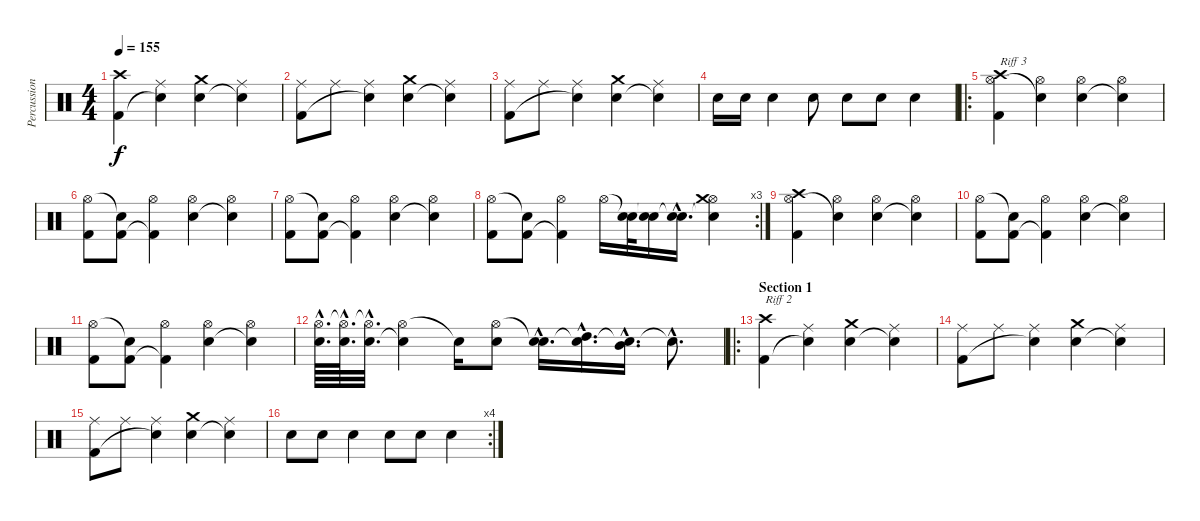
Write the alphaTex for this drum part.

\track ("Percussion" "Percussion") {instrument percussion}
\staff {score}
\articulation defaults
\ts (4 4)
\tempo 155
\clef neutral
\ks c
("Crash high (hit)" "Kick (hit) 2").4{dy f} ("Ride (middle)" "Snare (hit)"{t}).4 ("Crash medium (hit)" "Electric Snare (hit)").4 ("Ride (middle)" "Snare (hit)"{t}).4 |
("Ride (middle)" "Kick (hit) 2").8 "Ride (middle)".8 ("Ride (middle)" "Snare (hit)"{t}).4 ("Crash medium (hit)" "Electric Snare (hit)").4 ("Ride (middle)" "Snare (hit)"{t}).4 |
("Ride (middle)" "Kick (hit) 2").8 "Ride (middle)".8 ("Ride (middle)" "Snare (hit)"{t}).4 ("Crash medium (hit)" "Electric Snare (hit)").4 ("Ride (middle)" "Snare (hit)"{t}).4 |
"Electric Snare (hit)".16 "Electric Snare (hit)".16 "Electric Snare (hit)".4 "Electric Snare (hit)".8 "Electric Snare (hit)".8 "Electric Snare (hit)".8 "Electric Snare (hit)".4 |
\ro
("Crash high (hit)" "Hi-Hat (open)" "Kick (hit) 2").4{txt "Riff 3"} ("Hi-Hat (open)" "Snare (hit)"{t}).4 ("Hi-Hat (open)" "Electric Snare (hit)").4 ("Hi-Hat (open)" "Snare (hit)"{t}).4 |
("Hi-Hat (open)" "Kick (hit) 2").8 ("Snare (hit)"{t} "Kick (hit) 2").8 ("Hi-Hat (open)" "Kick (hit) 2"{t}).4 ("Hi-Hat (open)" "Electric Snare (hit)").4 ("Hi-Hat (open)" "Snare (hit)"{t}).4 |
("Hi-Hat (open)" "Kick (hit) 2").8 ("Snare (hit)"{t} "Kick (hit) 2").8 ("Hi-Hat (open)" "Kick (hit) 2"{t}).4 ("Hi-Hat (open)" "Electric Snare (hit)").4 ("Hi-Hat (open)" "Snare (hit)"{t}).4 |
\rc 3
("Hi-Hat (open)" "Kick (hit) 2").8 ("Snare (hit)"{t} "Kick (hit) 2").8 ("Hi-Hat (open)" "Kick (hit) 2"{t}).4 "Hi-Hat (open)".16 ("Snare (hit)"{t} "Electric Snare (hit)").32 ("Snare (hit)"{t} "Electric Snare (hit)").16 ("Snare (hit)"{hac t} "Electric Snare (hit)"{hac}).16{d} ("Hi-Hat (open)" "Electric Snare (hit)"{t} "Crash medium (hit)").4 |
("Crash high (hit)" "Hi-Hat (open)" "Kick (hit) 2").4 ("Hi-Hat (open)" "Snare (hit)"{t}).4 ("Hi-Hat (open)" "Electric Snare (hit)").4 ("Hi-Hat (open)" "Snare (hit)"{t}).4 |
("Hi-Hat (open)" "Kick (hit) 2").8 ("Snare (hit)"{t} "Kick (hit) 2").8 ("Hi-Hat (open)" "Kick (hit) 2"{t}).4 ("Hi-Hat (open)" "Electric Snare (hit)").4 ("Hi-Hat (open)" "Snare (hit)"{t}).4 |
("Hi-Hat (open)" "Kick (hit) 2").8 ("Snare (hit)"{t} "Kick (hit) 2").8 ("Hi-Hat (open)" "Kick (hit) 2"{t}).4 ("Hi-Hat (open)" "Electric Snare (hit)").4 ("Hi-Hat (open)" "Snare (hit)"{t}).4 |
("Hi-Hat (open)"{hac} "Electric Snare (hit)"{hac}).64{d} ("Hi-Hat (open)"{hac t} "Electric Snare (hit)"{hac}).64{d} ("Hi-Hat (open)"{hac t} "Electric Snare (hit)"{hac}).32{d} ("Hi-Hat (open)" "Snare (hit)"{t}).4 "Snare (hit)"{t}.16 ("Hi-Hat (open)" "Electric Snare (hit)").8 ("Snare (hit)"{hac t} "Electric Snare (hit)"{hac}).16{d} ("Snare (hit)"{hac t} "High Tom (hit)"{hac}).16{d} ("Snare (hit)"{hac t} "Mid Tom (hit)"{hac}).16{d} "Electric Snare (hit)"{hac t}.8{d} |
\ro
\section ("" "Section 1")
("Crash high (hit)" "Kick (hit) 2").4{txt "Riff 2"} ("Ride (middle)" "Snare (hit)"{t}).4 ("Crash medium (hit)" "Electric Snare (hit)").4 ("Ride (middle)" "Snare (hit)"{t}).4 |
("Ride (middle)" "Kick (hit) 2").8 "Ride (middle)".8 ("Ride (middle)" "Snare (hit)"{t}).4 ("Crash medium (hit)" "Electric Snare (hit)").4 ("Ride (middle)" "Snare (hit)"{t}).4 |
("Ride (middle)" "Kick (hit) 2").8 "Ride (middle)".8 ("Ride (middle)" "Snare (hit)"{t}).4 ("Crash medium (hit)" "Electric Snare (hit)").4 ("Ride (middle)" "Snare (hit)"{t}).4 |
\rc 4 "Electric Snare (hit)".8 "Electric Snare (hit)".8 "Electric Snare (hit)".4 "Electric Snare (hit)".8 "Electric Snare (hit)".8 "Electric Snare (hit)".4
